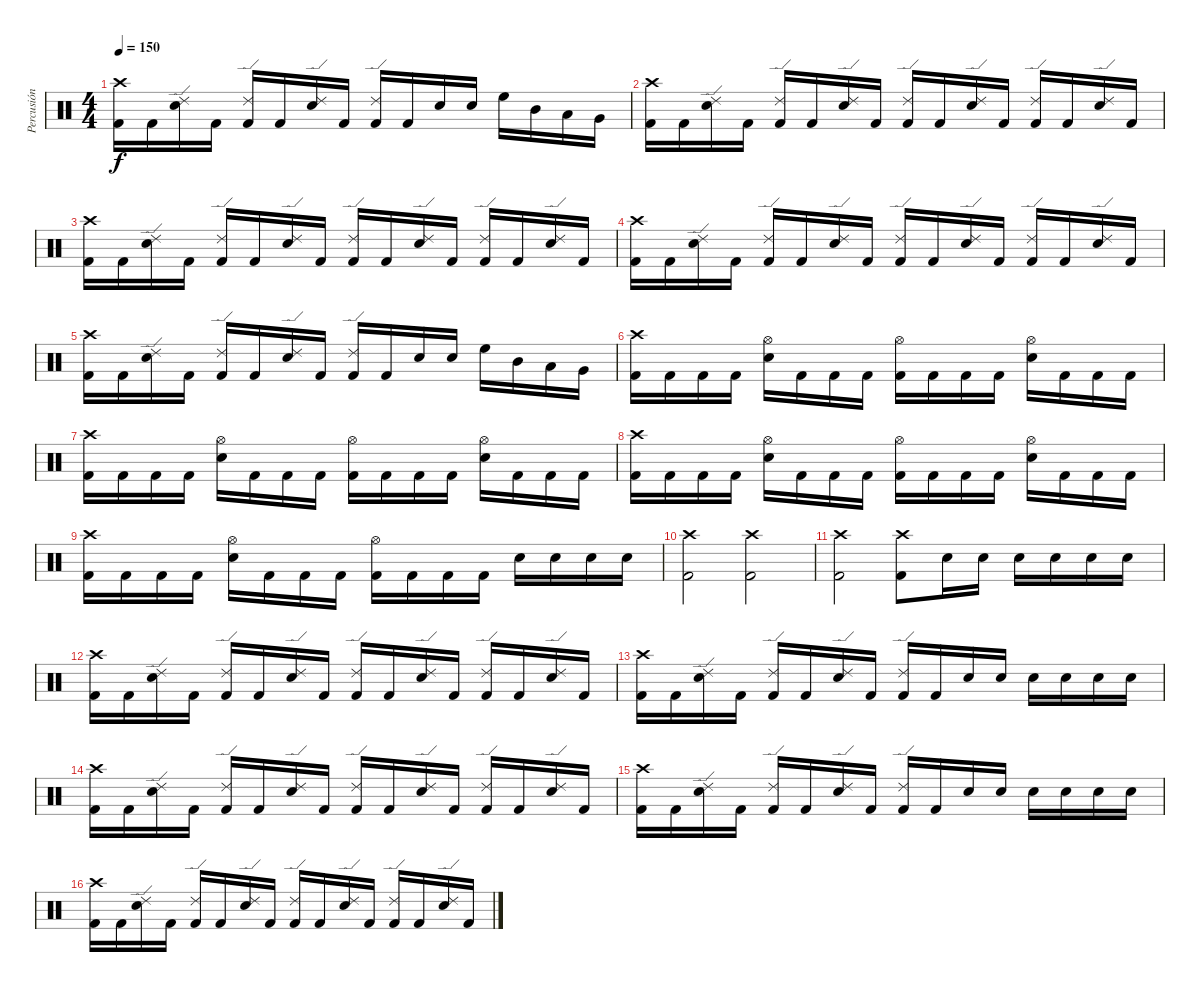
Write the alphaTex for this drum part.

\track ("Percusión" "Percusión") {instrument percussion}
\staff {score}
\articulation defaults
\ts (4 4)
\tempo 150
\clef neutral
\ks c
("Crash high (hit)" "Kick (hit) 2").16{dy f} "Kick (hit) 2".16 ("Ride (edge) 2" "Electric Snare (hit)").16 "Kick (hit) 2".16 ("Ride (edge) 2" "Kick (hit) 2").16 "Kick (hit) 2".16 ("Ride (edge) 2" "Electric Snare (hit)").16 "Kick (hit) 2".16 ("Ride (edge) 2" "Kick (hit) 2").16 "Kick (hit) 2".16 "Electric Snare (hit)".16 "Electric Snare (hit)".16 "High Floor Tom (hit)".16 "Mid Tom (hit)".16 "Low Tom (hit)".16 "Very Low Tom (hit)".16 |
("Crash high (hit)" "Kick (hit) 2").16 "Kick (hit) 2".16 ("Ride (edge) 2" "Electric Snare (hit)").16 "Kick (hit) 2".16 ("Ride (edge) 2" "Kick (hit) 2").16 "Kick (hit) 2".16 ("Ride (edge) 2" "Electric Snare (hit)").16 "Kick (hit) 2".16 ("Ride (edge) 2" "Kick (hit) 2").16 "Kick (hit) 2".16 ("Ride (edge) 2" "Electric Snare (hit)").16 "Kick (hit) 2".16 ("Ride (edge) 2" "Kick (hit) 2").16 "Kick (hit) 2".16 ("Ride (edge) 2" "Electric Snare (hit)").16 "Kick (hit) 2".16 |
("Crash high (hit)" "Kick (hit) 2").16 "Kick (hit) 2".16 ("Ride (edge) 2" "Electric Snare (hit)").16 "Kick (hit) 2".16 ("Ride (edge) 2" "Kick (hit) 2").16 "Kick (hit) 2".16 ("Ride (edge) 2" "Electric Snare (hit)").16 "Kick (hit) 2".16 ("Ride (edge) 2" "Kick (hit) 2").16 "Kick (hit) 2".16 ("Ride (edge) 2" "Electric Snare (hit)").16 "Kick (hit) 2".16 ("Ride (edge) 2" "Kick (hit) 2").16 "Kick (hit) 2".16 ("Ride (edge) 2" "Electric Snare (hit)").16 "Kick (hit) 2".16 |
("Crash high (hit)" "Kick (hit) 2").16 "Kick (hit) 2".16 ("Ride (edge) 2" "Electric Snare (hit)").16 "Kick (hit) 2".16 ("Ride (edge) 2" "Kick (hit) 2").16 "Kick (hit) 2".16 ("Ride (edge) 2" "Electric Snare (hit)").16 "Kick (hit) 2".16 ("Ride (edge) 2" "Kick (hit) 2").16 "Kick (hit) 2".16 ("Ride (edge) 2" "Electric Snare (hit)").16 "Kick (hit) 2".16 ("Ride (edge) 2" "Kick (hit) 2").16 "Kick (hit) 2".16 ("Ride (edge) 2" "Electric Snare (hit)").16 "Kick (hit) 2".16 |
("Crash high (hit)" "Kick (hit) 2").16 "Kick (hit) 2".16 ("Ride (edge) 2" "Electric Snare (hit)").16 "Kick (hit) 2".16 ("Ride (edge) 2" "Kick (hit) 2").16 "Kick (hit) 2".16 ("Ride (edge) 2" "Electric Snare (hit)").16 "Kick (hit) 2".16 ("Ride (edge) 2" "Kick (hit) 2").16 "Kick (hit) 2".16 "Electric Snare (hit)".16 "Electric Snare (hit)".16 "High Floor Tom (hit)".16 "Mid Tom (hit)".16 "Low Tom (hit)".16 "Very Low Tom (hit)".16 |
("Crash high (hit)" "Kick (hit) 2").16 "Kick (hit) 2".16 "Kick (hit) 2".16 "Kick (hit) 2".16 ("Hi-Hat (open)" "Electric Snare (hit)").16 "Kick (hit) 2".16 "Kick (hit) 2".16 "Kick (hit) 2".16 ("Hi-Hat (open)" "Kick (hit) 2").16 "Kick (hit) 2".16 "Kick (hit) 2".16 "Kick (hit) 2".16 ("Hi-Hat (open)" "Electric Snare (hit)").16 "Kick (hit) 2".16 "Kick (hit) 2".16 "Kick (hit) 2".16 |
("Crash high (hit)" "Kick (hit) 2").16 "Kick (hit) 2".16 "Kick (hit) 2".16 "Kick (hit) 2".16 ("Hi-Hat (open)" "Electric Snare (hit)").16 "Kick (hit) 2".16 "Kick (hit) 2".16 "Kick (hit) 2".16 ("Hi-Hat (open)" "Kick (hit) 2").16 "Kick (hit) 2".16 "Kick (hit) 2".16 "Kick (hit) 2".16 ("Hi-Hat (open)" "Electric Snare (hit)").16 "Kick (hit) 2".16 "Kick (hit) 2".16 "Kick (hit) 2".16 |
("Crash high (hit)" "Kick (hit) 2").16 "Kick (hit) 2".16 "Kick (hit) 2".16 "Kick (hit) 2".16 ("Hi-Hat (open)" "Electric Snare (hit)").16 "Kick (hit) 2".16 "Kick (hit) 2".16 "Kick (hit) 2".16 ("Hi-Hat (open)" "Kick (hit) 2").16 "Kick (hit) 2".16 "Kick (hit) 2".16 "Kick (hit) 2".16 ("Hi-Hat (open)" "Electric Snare (hit)").16 "Kick (hit) 2".16 "Kick (hit) 2".16 "Kick (hit) 2".16 |
("Crash high (hit)" "Kick (hit) 2").16 "Kick (hit) 2".16 "Kick (hit) 2".16 "Kick (hit) 2".16 ("Hi-Hat (open)" "Electric Snare (hit)").16 "Kick (hit) 2".16 "Kick (hit) 2".16 "Kick (hit) 2".16 ("Hi-Hat (open)" "Kick (hit) 2").16 "Kick (hit) 2".16 "Kick (hit) 2".16 "Kick (hit) 2".16 "Electric Snare (hit)".16 "Electric Snare (hit)".16 "Electric Snare (hit)".16 "Electric Snare (hit)".16 |
("Crash high (hit)" "Kick (hit) 2").2 ("Crash high (hit)" "Kick (hit) 2").2 |
("Crash high (hit)" "Kick (hit) 2").2 ("Crash high (hit)" "Kick (hit) 2").8 "Electric Snare (hit)".16 "Electric Snare (hit)".16 "Electric Snare (hit)".16 "Electric Snare (hit)".16 "Electric Snare (hit)".16 "Electric Snare (hit)".16 |
("Crash high (hit)" "Kick (hit) 2").16 "Kick (hit) 2".16 ("Ride (edge) 2" "Electric Snare (hit)").16 "Kick (hit) 2".16 ("Ride (edge) 2" "Kick (hit) 2").16 "Kick (hit) 2".16 ("Ride (edge) 2" "Electric Snare (hit)").16 "Kick (hit) 2".16 ("Ride (edge) 2" "Kick (hit) 2").16 "Kick (hit) 2".16 ("Ride (edge) 2" "Electric Snare (hit)").16 "Kick (hit) 2".16 ("Ride (edge) 2" "Kick (hit) 2").16 "Kick (hit) 2".16 ("Ride (edge) 2" "Electric Snare (hit)").16 "Kick (hit) 2".16 |
("Crash high (hit)" "Kick (hit) 2").16 "Kick (hit) 2".16 ("Ride (edge) 2" "Electric Snare (hit)").16 "Kick (hit) 2".16 ("Ride (edge) 2" "Kick (hit) 2").16 "Kick (hit) 2".16 ("Ride (edge) 2" "Electric Snare (hit)").16 "Kick (hit) 2".16 ("Ride (edge) 2" "Kick (hit) 2").16 "Kick (hit) 2".16 "Electric Snare (hit)".16 "Electric Snare (hit)".16 "Electric Snare (hit)".16 "Electric Snare (hit)".16 "Electric Snare (hit)".16 "Electric Snare (hit)".16 |
("Crash high (hit)" "Kick (hit) 2").16 "Kick (hit) 2".16 ("Ride (edge) 2" "Electric Snare (hit)").16 "Kick (hit) 2".16 ("Ride (edge) 2" "Kick (hit) 2").16 "Kick (hit) 2".16 ("Ride (edge) 2" "Electric Snare (hit)").16 "Kick (hit) 2".16 ("Ride (edge) 2" "Kick (hit) 2").16 "Kick (hit) 2".16 ("Ride (edge) 2" "Electric Snare (hit)").16 "Kick (hit) 2".16 ("Ride (edge) 2" "Kick (hit) 2").16 "Kick (hit) 2".16 ("Ride (edge) 2" "Electric Snare (hit)").16 "Kick (hit) 2".16 |
("Crash high (hit)" "Kick (hit) 2").16 "Kick (hit) 2".16 ("Ride (edge) 2" "Electric Snare (hit)").16 "Kick (hit) 2".16 ("Ride (edge) 2" "Kick (hit) 2").16 "Kick (hit) 2".16 ("Ride (edge) 2" "Electric Snare (hit)").16 "Kick (hit) 2".16 ("Ride (edge) 2" "Kick (hit) 2").16 "Kick (hit) 2".16 "Electric Snare (hit)".16 "Electric Snare (hit)".16 "Electric Snare (hit)".16 "Electric Snare (hit)".16 "Electric Snare (hit)".16 "Electric Snare (hit)".16 |
("Crash high (hit)" "Kick (hit) 2").16 "Kick (hit) 2".16 ("Ride (edge) 2" "Electric Snare (hit)").16 "Kick (hit) 2".16 ("Ride (edge) 2" "Kick (hit) 2").16 "Kick (hit) 2".16 ("Ride (edge) 2" "Electric Snare (hit)").16 "Kick (hit) 2".16 ("Ride (edge) 2" "Kick (hit) 2").16 "Kick (hit) 2".16 ("Ride (edge) 2" "Electric Snare (hit)").16 "Kick (hit) 2".16 ("Ride (edge) 2" "Kick (hit) 2").16 "Kick (hit) 2".16 ("Ride (edge) 2" "Electric Snare (hit)").16 "Kick (hit) 2".16
